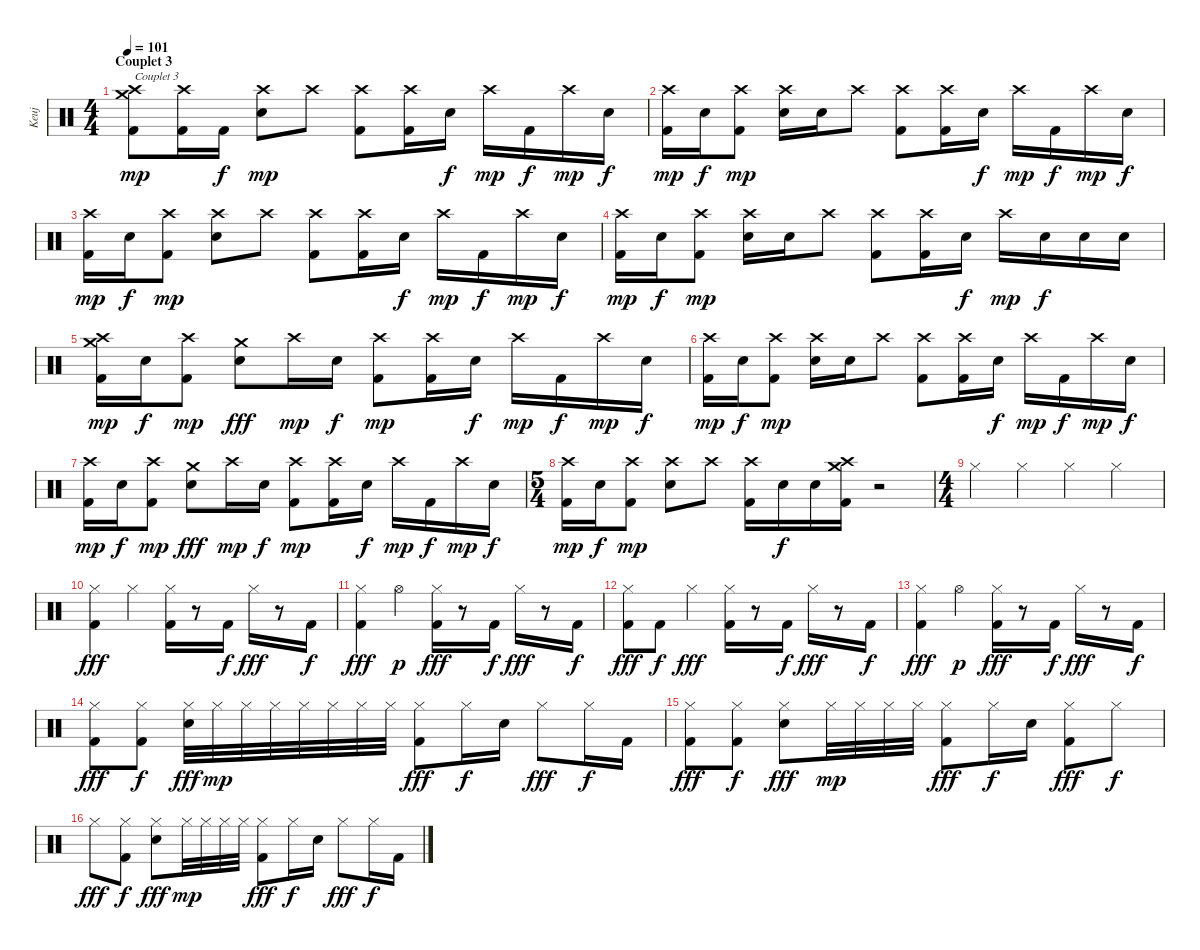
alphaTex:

\track ("Keuj" "Keuj") {instrument percussion}
\staff {score}
\articulation defaults
\ts (4 4)
\section ("" "Couplet 3")
\tempo 101
\clef neutral
\ks c
("Crash medium (hit)" "Crash high (hit)" "Kick (hit) 2").8{txt "Couplet 3" dy mp} ("Crash high (hit)" "Kick (hit) 2").16 "Kick (hit) 2".16{dy f} ("Crash high (hit)" "Electric Snare (hit)").8{dy mp} "Crash high (hit)".8 ("Crash high (hit)" "Kick (hit) 2").8 ("Crash high (hit)" "Kick (hit) 2").16 "Electric Snare (hit)".16{dy f} "Crash high (hit)".16{dy mp} "Kick (hit) 2".16{dy f} "Crash high (hit)".16{dy mp} "Electric Snare (hit)".16{dy f} |
("Crash high (hit)" "Kick (hit) 2").16{dy mp} "Electric Snare (hit)".16{dy f} ("Crash high (hit)" "Kick (hit) 2").8{dy mp} ("Crash high (hit)" "Electric Snare (hit)").16 "Electric Snare (hit)".16 "Crash high (hit)".8 ("Crash high (hit)" "Kick (hit) 2").8 ("Crash high (hit)" "Kick (hit) 2").16 "Electric Snare (hit)".16{dy f} "Crash high (hit)".16{dy mp} "Kick (hit) 2".16{dy f} "Crash high (hit)".16{dy mp} "Electric Snare (hit)".16{dy f} |
("Crash high (hit)" "Kick (hit) 2").16{dy mp} "Electric Snare (hit)".16{dy f} ("Crash high (hit)" "Kick (hit) 2").8{dy mp} ("Crash high (hit)" "Electric Snare (hit)").8 "Crash high (hit)".8 ("Crash high (hit)" "Kick (hit) 2").8 ("Crash high (hit)" "Kick (hit) 2").16 "Electric Snare (hit)".16{dy f} "Crash high (hit)".16{dy mp} "Kick (hit) 2".16{dy f} "Crash high (hit)".16{dy mp} "Electric Snare (hit)".16{dy f} |
("Crash high (hit)" "Kick (hit) 2").16{dy mp} "Electric Snare (hit)".16{dy f} ("Crash high (hit)" "Kick (hit) 2").8{dy mp} ("Crash high (hit)" "Electric Snare (hit)").16 "Electric Snare (hit)".16 "Crash high (hit)".8 ("Crash high (hit)" "Kick (hit) 2").8 ("Crash high (hit)" "Kick (hit) 2").16 "Electric Snare (hit)".16{dy f} "Crash high (hit)".16{dy mp} "Electric Snare (hit)".16{dy f} "Electric Snare (hit)".16 "Electric Snare (hit)".16 |
("Crash medium (hit)" "Crash high (hit)" "Kick (hit) 2").16{dy mp} "Electric Snare (hit)".16{dy f} ("Crash high (hit)" "Kick (hit) 2").8{dy mp} ("Crash medium (hit)" "Electric Snare (hit)").8{dy fff} "Crash high (hit)".16{dy mp} "Electric Snare (hit)".16{dy f} ("Crash high (hit)" "Kick (hit) 2").8{dy mp} ("Crash high (hit)" "Kick (hit) 2").16 "Electric Snare (hit)".16{dy f} "Crash high (hit)".16{dy mp} "Kick (hit) 2".16{dy f} "Crash high (hit)".16{dy mp} "Electric Snare (hit)".16{dy f} |
("Crash high (hit)" "Kick (hit) 2").16{dy mp} "Electric Snare (hit)".16{dy f} ("Crash high (hit)" "Kick (hit) 2").8{dy mp} ("Crash high (hit)" "Electric Snare (hit)").16 "Electric Snare (hit)".16 "Crash high (hit)".8 ("Crash high (hit)" "Kick (hit) 2").8 ("Crash high (hit)" "Kick (hit) 2").16 "Electric Snare (hit)".16{dy f} "Crash high (hit)".16{dy mp} "Kick (hit) 2".16{dy f} "Crash high (hit)".16{dy mp} "Electric Snare (hit)".16{dy f} |
("Crash high (hit)" "Kick (hit) 2").16{dy mp} "Electric Snare (hit)".16{dy f} ("Crash high (hit)" "Kick (hit) 2").8{dy mp} ("Crash medium (hit)" "Electric Snare (hit)").8{dy fff} "Crash high (hit)".16{dy mp} "Electric Snare (hit)".16{dy f} ("Crash high (hit)" "Kick (hit) 2").8{dy mp} ("Crash high (hit)" "Kick (hit) 2").16 "Electric Snare (hit)".16{dy f} "Crash high (hit)".16{dy mp} "Kick (hit) 2".16{dy f} "Crash high (hit)".16{dy mp} "Electric Snare (hit)".16{dy f} |
\ts (5 4)
("Crash high (hit)" "Kick (hit) 2").16{dy mp} "Electric Snare (hit)".16{dy f} ("Crash high (hit)" "Kick (hit) 2").8{dy mp} ("Crash high (hit)" "Electric Snare (hit)").8 "Crash high (hit)".8 ("Crash high (hit)" "Kick (hit) 2").16 "Electric Snare (hit)".16{dy f} "Electric Snare (hit)".16 ("Crash medium (hit)" "Crash high (hit)" "Kick (hit) 2").16 r.2 |
\ts (4 4)
"Hi-Hat (closed)".4 "Hi-Hat (closed)".4 "Hi-Hat (closed)".4 "Hi-Hat (closed)".4 |
("Hi-Hat (closed)" "Kick (hit) 2").4{dy fff} "Hi-Hat (closed)".4 ("Hi-Hat (closed)" "Kick (hit) 2").16 r.8 "Kick (hit) 2".16{dy f} "Hi-Hat (closed)".16{dy fff} r.8 "Kick (hit) 2".16{dy f} |
("Hi-Hat (closed)" "Kick (hit) 2").4{dy fff} "Hi-Hat (open)".4{dy p} ("Hi-Hat (closed)" "Kick (hit) 2").16{dy fff} r.8 "Kick (hit) 2".16{dy f} "Hi-Hat (closed)".16{dy fff} r.8 "Kick (hit) 2".16{dy f} |
("Hi-Hat (closed)" "Kick (hit) 2").8{dy fff} "Kick (hit) 2".8{dy f} "Hi-Hat (closed)".4{dy fff} ("Hi-Hat (closed)" "Kick (hit) 2").16 r.8 "Kick (hit) 2".16{dy f} "Hi-Hat (closed)".16{dy fff} r.8 "Kick (hit) 2".16{dy f} |
("Hi-Hat (closed)" "Kick (hit) 2").4{dy fff} "Hi-Hat (open)".4{dy p} ("Hi-Hat (closed)" "Kick (hit) 2").16{dy fff} r.8 "Kick (hit) 2".16{dy f} "Hi-Hat (closed)".16{dy fff} r.8 "Kick (hit) 2".16{dy f} |
("Hi-Hat (closed)" "Kick (hit) 2").8{dy fff} ("Hi-Hat (closed)" "Kick (hit) 2").8{dy f} ("Electric Snare (hit)" "Hi-Hat (closed)").32{dy fff} "Hi-Hat (closed)".32{dy mp} "Hi-Hat (closed)".32 "Hi-Hat (closed)".32 "Hi-Hat (closed)".32 "Hi-Hat (closed)".32 "Hi-Hat (closed)".32 "Hi-Hat (closed)".32 ("Hi-Hat (closed)" "Kick (hit) 2").8{dy fff} "Hi-Hat (closed)".16{dy f} "Electric Snare (hit)".16 "Hi-Hat (closed)".8{dy fff} "Hi-Hat (closed)".16{dy f} "Kick (hit) 2".16 |
("Hi-Hat (closed)" "Kick (hit) 2").8{dy fff} ("Hi-Hat (closed)" "Kick (hit) 2").8{dy f} ("Electric Snare (hit)" "Hi-Hat (closed)").8{dy fff} "Hi-Hat (closed)".32{dy mp} "Hi-Hat (closed)".32 "Hi-Hat (closed)".32 "Hi-Hat (closed)".32 ("Hi-Hat (closed)" "Kick (hit) 2").8{dy fff} "Hi-Hat (closed)".16{dy f} "Electric Snare (hit)".16 ("Hi-Hat (closed)" "Kick (hit) 2").8{dy fff} "Hi-Hat (closed)".8{dy f} |
"Hi-Hat (closed)".8{dy fff} ("Hi-Hat (closed)" "Kick (hit) 2").8{dy f} ("Electric Snare (hit)" "Hi-Hat (closed)").8{dy fff} "Hi-Hat (closed)".32{dy mp} "Hi-Hat (closed)".32 "Hi-Hat (closed)".32 "Hi-Hat (closed)".32 ("Hi-Hat (closed)" "Kick (hit) 2").8{dy fff} "Hi-Hat (closed)".16{dy f} "Electric Snare (hit)".16 "Hi-Hat (closed)".8{dy fff} "Hi-Hat (closed)".16{dy f} "Kick (hit) 2".16
